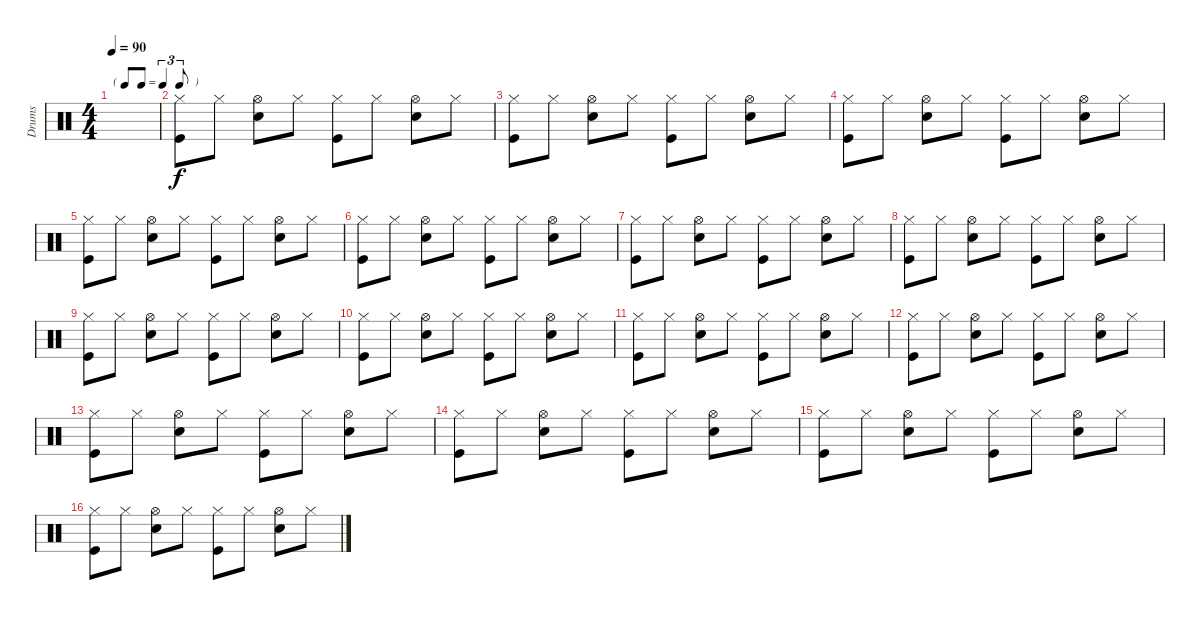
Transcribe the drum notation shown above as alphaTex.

\track ("Drums" "Drums") {instrument percussion}
\staff {score}
\articulation defaults
\ts (4 4)
\tf triplet8th
\tempo 90
\clef neutral
\ks c
|
("Hi-Hat (closed)" "Kick (hit)").8 "Hi-Hat (closed)".8 ("Hi-Hat (open)" "Snare (hit) 2").8 "Hi-Hat (closed)".8 ("Hi-Hat (closed)" "Kick (hit)").8 "Hi-Hat (closed)".8 ("Hi-Hat (open)" "Snare (hit) 2").8 "Hi-Hat (closed)".8 |
("Hi-Hat (closed)" "Kick (hit)").8 "Hi-Hat (closed)".8 ("Hi-Hat (open)" "Snare (hit) 2").8 "Hi-Hat (closed)".8 ("Hi-Hat (closed)" "Kick (hit)").8 "Hi-Hat (closed)".8 ("Hi-Hat (open)" "Snare (hit) 2").8 "Hi-Hat (closed)".8 |
("Hi-Hat (closed)" "Kick (hit)").8 "Hi-Hat (closed)".8 ("Hi-Hat (open)" "Snare (hit) 2").8 "Hi-Hat (closed)".8 ("Hi-Hat (closed)" "Kick (hit)").8 "Hi-Hat (closed)".8 ("Hi-Hat (open)" "Snare (hit) 2").8 "Hi-Hat (closed)".8 |
("Hi-Hat (closed)" "Kick (hit)").8 "Hi-Hat (closed)".8 ("Hi-Hat (open)" "Snare (hit) 2").8 "Hi-Hat (closed)".8 ("Hi-Hat (closed)" "Kick (hit)").8 "Hi-Hat (closed)".8 ("Hi-Hat (open)" "Snare (hit) 2").8 "Hi-Hat (closed)".8 |
("Hi-Hat (closed)" "Kick (hit)").8 "Hi-Hat (closed)".8 ("Hi-Hat (open)" "Snare (hit) 2").8 "Hi-Hat (closed)".8 ("Hi-Hat (closed)" "Kick (hit)").8 "Hi-Hat (closed)".8 ("Hi-Hat (open)" "Snare (hit) 2").8 "Hi-Hat (closed)".8 |
("Hi-Hat (closed)" "Kick (hit)").8 "Hi-Hat (closed)".8 ("Hi-Hat (open)" "Snare (hit) 2").8 "Hi-Hat (closed)".8 ("Hi-Hat (closed)" "Kick (hit)").8 "Hi-Hat (closed)".8 ("Hi-Hat (open)" "Snare (hit) 2").8 "Hi-Hat (closed)".8 |
("Hi-Hat (closed)" "Kick (hit)").8 "Hi-Hat (closed)".8 ("Hi-Hat (open)" "Snare (hit) 2").8 "Hi-Hat (closed)".8 ("Hi-Hat (closed)" "Kick (hit)").8 "Hi-Hat (closed)".8 ("Hi-Hat (open)" "Snare (hit) 2").8 "Hi-Hat (closed)".8 |
("Hi-Hat (closed)" "Kick (hit)").8 "Hi-Hat (closed)".8 ("Hi-Hat (open)" "Snare (hit) 2").8 "Hi-Hat (closed)".8 ("Hi-Hat (closed)" "Kick (hit)").8 "Hi-Hat (closed)".8 ("Hi-Hat (open)" "Snare (hit) 2").8 "Hi-Hat (closed)".8 |
("Hi-Hat (closed)" "Kick (hit)").8 "Hi-Hat (closed)".8 ("Hi-Hat (open)" "Snare (hit) 2").8 "Hi-Hat (closed)".8 ("Hi-Hat (closed)" "Kick (hit)").8 "Hi-Hat (closed)".8 ("Hi-Hat (open)" "Snare (hit) 2").8 "Hi-Hat (closed)".8 |
("Hi-Hat (closed)" "Kick (hit)").8 "Hi-Hat (closed)".8 ("Hi-Hat (open)" "Snare (hit) 2").8 "Hi-Hat (closed)".8 ("Hi-Hat (closed)" "Kick (hit)").8 "Hi-Hat (closed)".8 ("Hi-Hat (open)" "Snare (hit) 2").8 "Hi-Hat (closed)".8 |
("Hi-Hat (closed)" "Kick (hit)").8 "Hi-Hat (closed)".8 ("Hi-Hat (open)" "Snare (hit) 2").8 "Hi-Hat (closed)".8 ("Hi-Hat (closed)" "Kick (hit)").8 "Hi-Hat (closed)".8 ("Hi-Hat (open)" "Snare (hit) 2").8 "Hi-Hat (closed)".8 |
("Hi-Hat (closed)" "Kick (hit)").8 "Hi-Hat (closed)".8 ("Hi-Hat (open)" "Snare (hit) 2").8 "Hi-Hat (closed)".8 ("Hi-Hat (closed)" "Kick (hit)").8 "Hi-Hat (closed)".8 ("Hi-Hat (open)" "Snare (hit) 2").8 "Hi-Hat (closed)".8 |
("Hi-Hat (closed)" "Kick (hit)").8 "Hi-Hat (closed)".8 ("Hi-Hat (open)" "Snare (hit) 2").8 "Hi-Hat (closed)".8 ("Hi-Hat (closed)" "Kick (hit)").8 "Hi-Hat (closed)".8 ("Hi-Hat (open)" "Snare (hit) 2").8 "Hi-Hat (closed)".8 |
("Hi-Hat (closed)" "Kick (hit)").8 "Hi-Hat (closed)".8 ("Hi-Hat (open)" "Snare (hit) 2").8 "Hi-Hat (closed)".8 ("Hi-Hat (closed)" "Kick (hit)").8 "Hi-Hat (closed)".8 ("Hi-Hat (open)" "Snare (hit) 2").8 "Hi-Hat (closed)".8 |
("Hi-Hat (closed)" "Kick (hit)").8 "Hi-Hat (closed)".8 ("Hi-Hat (open)" "Snare (hit) 2").8 "Hi-Hat (closed)".8 ("Hi-Hat (closed)" "Kick (hit)").8 "Hi-Hat (closed)".8 ("Hi-Hat (open)" "Snare (hit) 2").8 "Hi-Hat (closed)".8
